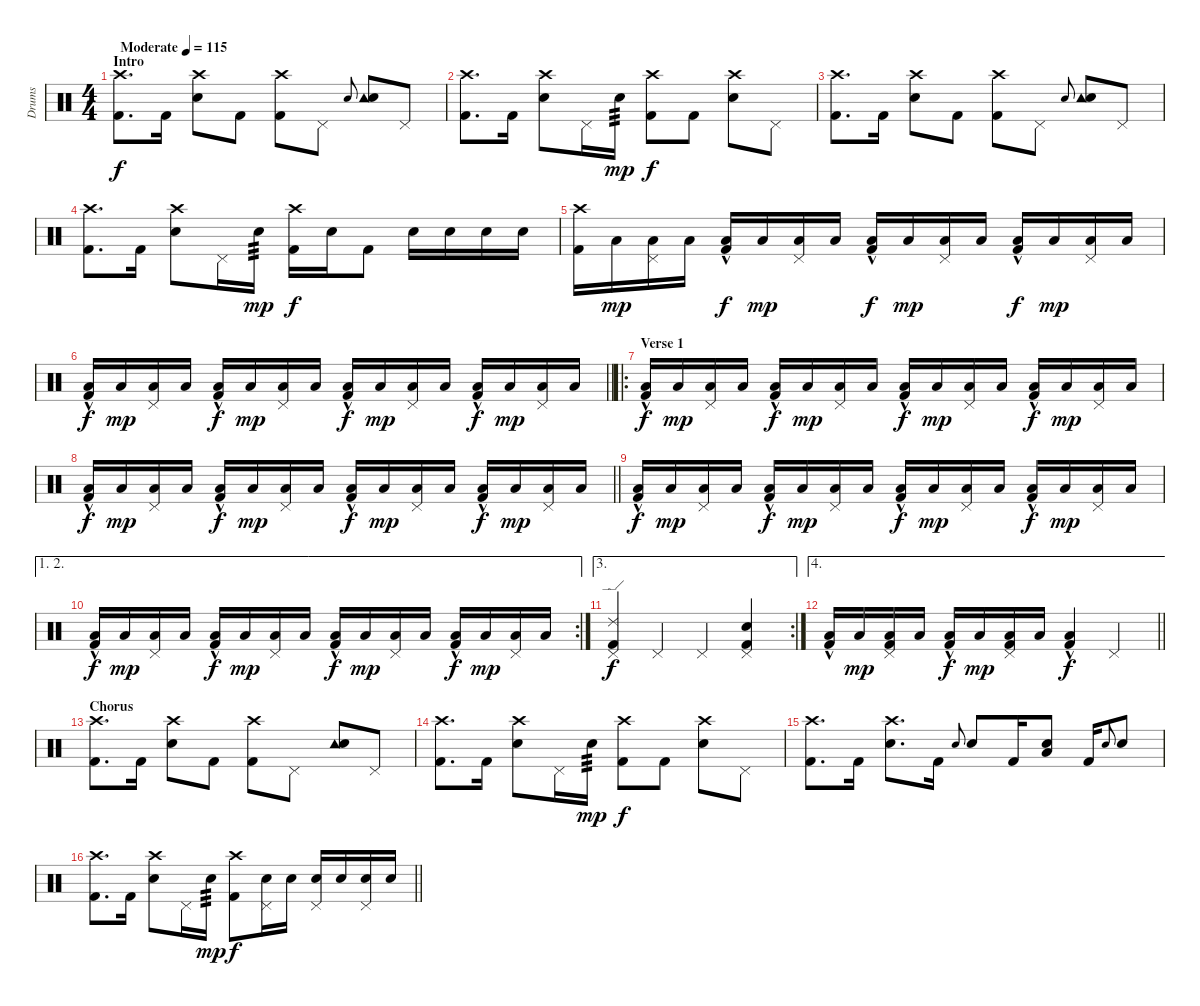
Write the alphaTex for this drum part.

\track ("Drums" "Drums") {instrument percussion}
\staff {score}
\articulation defaults
\ts (4 4)
\section ("" "Intro")
\tempo (115 "Moderate")
\clef neutral
\ks c
("Crash high (hit)" "Kick (hit) 2").8{d dy f} "Kick (hit) 2".16 ("Crash high (hit)" "Snare (hit) 2").8 "Kick (hit) 2".8 ("Crash high (hit)" "Kick (hit) 2").8 "Pedal Hi-Hat (hit)".8 "Snare (hit) 2".8{gr onbeat} ("Tambourine (hit)" "Snare (hit) 2").8 "Pedal Hi-Hat (hit)".8 |
("Crash high (hit)" "Kick (hit) 2").8{d} "Kick (hit) 2".16 ("Crash high (hit)" "Snare (hit) 2").8 "Pedal Hi-Hat (hit)".16 "Snare (hit) 2".16{tp 3 dy mp} ("Crash high (hit)" "Kick (hit) 2").8{dy f} "Kick (hit) 2".8 ("Crash high (hit)" "Snare (hit) 2").8 "Pedal Hi-Hat (hit)".8 |
("Crash high (hit)" "Kick (hit) 2").8{d} "Kick (hit) 2".16 ("Crash high (hit)" "Snare (hit) 2").8 "Kick (hit) 2".8 ("Crash high (hit)" "Kick (hit) 2").8 "Pedal Hi-Hat (hit)".8 "Snare (hit) 2".8{gr onbeat} ("Tambourine (hit)" "Snare (hit) 2").8 "Pedal Hi-Hat (hit)".8 |
("Crash high (hit)" "Kick (hit) 2").8{d} "Kick (hit) 2".16 ("Crash high (hit)" "Snare (hit) 2").8 "Pedal Hi-Hat (hit)".16 "Snare (hit) 2".16{tp 3 dy mp} ("Crash high (hit)" "Kick (hit) 2").16{dy f} "Snare (hit) 2".16 "Kick (hit) 2".8 "Snare (hit) 2".16 "Snare (hit) 2".16 "Snare (hit) 2".16 "Snare (hit) 2".16 |
("Crash high (hit)" "Kick (hit) 2").16 "Low Floor Tom (hit)".16{dy mp} ("Pedal Hi-Hat (hit)" "Low Floor Tom (hit)").16 "Low Floor Tom (hit)".16 ("Low Floor Tom (hit)"{hac} "Kick (hit) 2").16{dy f} "Low Floor Tom (hit)".16{dy mp} ("Pedal Hi-Hat (hit)" "Low Floor Tom (hit)").16 "Low Floor Tom (hit)".16 ("Low Floor Tom (hit)"{hac} "Kick (hit) 2").16{dy f} "Low Floor Tom (hit)".16{dy mp} ("Pedal Hi-Hat (hit)" "Low Floor Tom (hit)").16 "Low Floor Tom (hit)".16 ("Low Floor Tom (hit)"{hac} "Kick (hit) 2").16{dy f} "Low Floor Tom (hit)".16{dy mp} ("Pedal Hi-Hat (hit)" "Low Floor Tom (hit)").16 "Low Floor Tom (hit)".16 |
\barLineRight lightlight
("Low Floor Tom (hit)"{hac} "Kick (hit) 2").16{dy f} "Low Floor Tom (hit)".16{dy mp} ("Pedal Hi-Hat (hit)" "Low Floor Tom (hit)").16 "Low Floor Tom (hit)".16 ("Low Floor Tom (hit)"{hac} "Kick (hit) 2").16{dy f} "Low Floor Tom (hit)".16{dy mp} ("Pedal Hi-Hat (hit)" "Low Floor Tom (hit)").16 "Low Floor Tom (hit)".16 ("Low Floor Tom (hit)"{hac} "Kick (hit) 2").16{dy f} "Low Floor Tom (hit)".16{dy mp} ("Pedal Hi-Hat (hit)" "Low Floor Tom (hit)").16 "Low Floor Tom (hit)".16 ("Low Floor Tom (hit)"{hac} "Kick (hit) 2").16{dy f} "Low Floor Tom (hit)".16{dy mp} ("Pedal Hi-Hat (hit)" "Low Floor Tom (hit)").16 "Low Floor Tom (hit)".16 |
\ro
\section ("" "Verse 1")
("Low Floor Tom (hit)"{hac} "Kick (hit) 2").16{dy f} "Low Floor Tom (hit)".16{dy mp} ("Pedal Hi-Hat (hit)" "Low Floor Tom (hit)").16 "Low Floor Tom (hit)".16 ("Low Floor Tom (hit)"{hac} "Kick (hit) 2").16{dy f} "Low Floor Tom (hit)".16{dy mp} ("Pedal Hi-Hat (hit)" "Low Floor Tom (hit)").16 "Low Floor Tom (hit)".16 ("Low Floor Tom (hit)"{hac} "Kick (hit) 2").16{dy f} "Low Floor Tom (hit)".16{dy mp} ("Pedal Hi-Hat (hit)" "Low Floor Tom (hit)").16 "Low Floor Tom (hit)".16 ("Low Floor Tom (hit)"{hac} "Kick (hit) 2").16{dy f} "Low Floor Tom (hit)".16{dy mp} ("Pedal Hi-Hat (hit)" "Low Floor Tom (hit)").16 "Low Floor Tom (hit)".16 |
\barLineRight lightlight
("Low Floor Tom (hit)"{hac} "Kick (hit) 2").16{dy f} "Low Floor Tom (hit)".16{dy mp} ("Pedal Hi-Hat (hit)" "Low Floor Tom (hit)").16 "Low Floor Tom (hit)".16 ("Low Floor Tom (hit)"{hac} "Kick (hit) 2").16{dy f} "Low Floor Tom (hit)".16{dy mp} ("Pedal Hi-Hat (hit)" "Low Floor Tom (hit)").16 "Low Floor Tom (hit)".16 ("Low Floor Tom (hit)"{hac} "Kick (hit) 2").16{dy f} "Low Floor Tom (hit)".16{dy mp} ("Pedal Hi-Hat (hit)" "Low Floor Tom (hit)").16 "Low Floor Tom (hit)".16 ("Low Floor Tom (hit)"{hac} "Kick (hit) 2").16{dy f} "Low Floor Tom (hit)".16{dy mp} ("Pedal Hi-Hat (hit)" "Low Floor Tom (hit)").16 "Low Floor Tom (hit)".16 |
("Low Floor Tom (hit)"{hac} "Kick (hit) 2").16{dy f} "Low Floor Tom (hit)".16{dy mp} ("Pedal Hi-Hat (hit)" "Low Floor Tom (hit)").16 "Low Floor Tom (hit)".16 ("Low Floor Tom (hit)"{hac} "Kick (hit) 2").16{dy f} "Low Floor Tom (hit)".16{dy mp} ("Pedal Hi-Hat (hit)" "Low Floor Tom (hit)").16 "Low Floor Tom (hit)".16 ("Low Floor Tom (hit)"{hac} "Kick (hit) 2").16{dy f} "Low Floor Tom (hit)".16{dy mp} ("Pedal Hi-Hat (hit)" "Low Floor Tom (hit)").16 "Low Floor Tom (hit)".16 ("Low Floor Tom (hit)"{hac} "Kick (hit) 2").16{dy f} "Low Floor Tom (hit)".16{dy mp} ("Pedal Hi-Hat (hit)" "Low Floor Tom (hit)").16 "Low Floor Tom (hit)".16 |
\ae (1 2)
\rc 2
("Low Floor Tom (hit)"{hac} "Kick (hit) 2").16{dy f} "Low Floor Tom (hit)".16{dy mp} ("Pedal Hi-Hat (hit)" "Low Floor Tom (hit)").16 "Low Floor Tom (hit)".16 ("Low Floor Tom (hit)"{hac} "Kick (hit) 2").16{dy f} "Low Floor Tom (hit)".16{dy mp} ("Pedal Hi-Hat (hit)" "Low Floor Tom (hit)").16 "Low Floor Tom (hit)".16 ("Low Floor Tom (hit)"{hac} "Kick (hit) 2").16{dy f} "Low Floor Tom (hit)".16{dy mp} ("Pedal Hi-Hat (hit)" "Low Floor Tom (hit)").16 "Low Floor Tom (hit)".16 ("Low Floor Tom (hit)"{hac} "Kick (hit) 2").16{dy f} "Low Floor Tom (hit)".16{dy mp} ("Pedal Hi-Hat (hit)" "Low Floor Tom (hit)").16 "Low Floor Tom (hit)".16 |
\ae 3
\rc 2
("Ride (edge) 2" "Pedal Hi-Hat (hit)" "Kick (hit) 2").4{dy f} "Pedal Hi-Hat (hit)".4 "Pedal Hi-Hat (hit)".4 ("Pedal Hi-Hat (hit)" "Snare (hit) 2" "Kick (hit) 2").4 |
\ae 4
\barLineRight lightlight
("Low Floor Tom (hit)"{hac} "Kick (hit) 2").16{volume 15} "Low Floor Tom (hit)".16{dy mp} ("Pedal Hi-Hat (hit)" "Low Floor Tom (hit)" "Kick (hit) 2").16 "Low Floor Tom (hit)".16 ("Low Floor Tom (hit)"{hac} "Kick (hit) 2").16{dy f} "Low Floor Tom (hit)".16{dy mp} ("Pedal Hi-Hat (hit)" "Low Floor Tom (hit)" "Kick (hit) 2").16 "Low Floor Tom (hit)".16 ("Low Floor Tom (hit)"{hac} "Kick (hit) 2").4{dy f} "Pedal Hi-Hat (hit)".4 |
\section ("" "Chorus")
("Crash high (hit)" "Kick (hit) 2").8{d} "Kick (hit) 2".16 ("Crash high (hit)" "Snare (hit) 2").8 "Kick (hit) 2".8 ("Crash high (hit)" "Kick (hit) 2").8 "Pedal Hi-Hat (hit)".8 ("Tambourine (hit)" "Snare (hit) 2").8 "Pedal Hi-Hat (hit)".8 |
("Crash high (hit)" "Kick (hit) 2").8{d} "Kick (hit) 2".16 ("Crash high (hit)" "Snare (hit) 2").8 "Pedal Hi-Hat (hit)".16 "Snare (hit) 2".16{tp 3 dy mp} ("Crash high (hit)" "Kick (hit) 2").8{dy f} "Kick (hit) 2".8 ("Crash high (hit)" "Snare (hit) 2").8 "Pedal Hi-Hat (hit)".8 |
("Crash high (hit)" "Kick (hit) 2").8{d} "Kick (hit) 2".16 ("Crash high (hit)" "Snare (hit) 2").8{d} "Kick (hit) 2".16 "Snare (hit) 2".8{gr onbeat} "Snare (hit) 2".8 "Kick (hit) 2".16 ("Low Floor Tom (hit)" "Snare (hit) 2").8 "Kick (hit) 2".16 "Snare (hit) 2".8{gr onbeat} "Snare (hit) 2".8 |
\barLineRight lightlight
("Crash high (hit)" "Kick (hit) 2").8{d} "Kick (hit) 2".16 ("Crash high (hit)" "Snare (hit) 2").8 "Pedal Hi-Hat (hit)".16 "Snare (hit) 2".16{tp 3 dy mp} ("Crash high (hit)" "Kick (hit) 2").8{dy f} ("Pedal Hi-Hat (hit)" "Snare (hit) 2").16 "Snare (hit) 2".16 ("Pedal Hi-Hat (hit)" "Snare (hit) 2").16 "Snare (hit) 2".16 ("Pedal Hi-Hat (hit)" "Snare (hit) 2").16 "Snare (hit) 2".16
